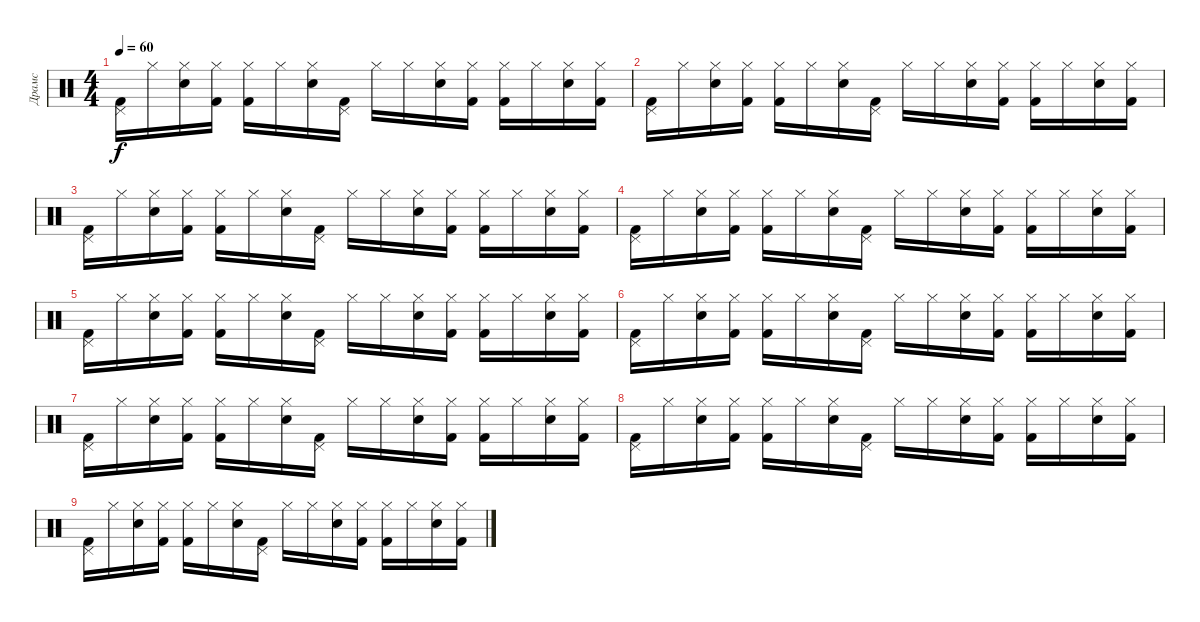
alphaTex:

\track ("Драмс" "Драмс") {instrument percussion}
\staff {score}
\articulation defaults
\ts (4 4)
\tempo 60
\clef neutral
\ks c
("Kick (hit) 2" "Pedal Hi-Hat (hit)").16{dy f} "Hi-Hat (closed)".16 ("Snare (hit) 2" "Hi-Hat (closed)").16 ("Kick (hit) 2" "Hi-Hat (closed)").16 ("Kick (hit) 2" "Hi-Hat (closed)").16 "Hi-Hat (closed)".16 ("Snare (hit) 2" "Hi-Hat (closed)").16 ("Kick (hit) 2" "Pedal Hi-Hat (hit)").16 "Hi-Hat (closed)".16 "Hi-Hat (closed)".16 ("Snare (hit) 2" "Hi-Hat (closed)").16 ("Kick (hit) 2" "Hi-Hat (closed)").16 ("Kick (hit) 2" "Hi-Hat (closed)").16 "Hi-Hat (closed)".16 ("Snare (hit) 2" "Hi-Hat (closed)").16 ("Kick (hit) 2" "Hi-Hat (closed)").16 |
("Kick (hit) 2" "Pedal Hi-Hat (hit)").16 "Hi-Hat (closed)".16 ("Snare (hit) 2" "Hi-Hat (closed)").16 ("Kick (hit) 2" "Hi-Hat (closed)").16 ("Kick (hit) 2" "Hi-Hat (closed)").16 "Hi-Hat (closed)".16 ("Snare (hit) 2" "Hi-Hat (closed)").16 ("Kick (hit) 2" "Pedal Hi-Hat (hit)").16 "Hi-Hat (closed)".16 "Hi-Hat (closed)".16 ("Snare (hit) 2" "Hi-Hat (closed)").16 ("Kick (hit) 2" "Hi-Hat (closed)").16 ("Kick (hit) 2" "Hi-Hat (closed)").16 "Hi-Hat (closed)".16 ("Snare (hit) 2" "Hi-Hat (closed)").16 ("Kick (hit) 2" "Hi-Hat (closed)").16 |
("Kick (hit) 2" "Pedal Hi-Hat (hit)").16 "Hi-Hat (closed)".16 ("Snare (hit) 2" "Hi-Hat (closed)").16 ("Kick (hit) 2" "Hi-Hat (closed)").16 ("Kick (hit) 2" "Hi-Hat (closed)").16 "Hi-Hat (closed)".16 ("Snare (hit) 2" "Hi-Hat (closed)").16 ("Kick (hit) 2" "Pedal Hi-Hat (hit)").16 "Hi-Hat (closed)".16 "Hi-Hat (closed)".16 ("Snare (hit) 2" "Hi-Hat (closed)").16 ("Kick (hit) 2" "Hi-Hat (closed)").16 ("Kick (hit) 2" "Hi-Hat (closed)").16 "Hi-Hat (closed)".16 ("Snare (hit) 2" "Hi-Hat (closed)").16 ("Kick (hit) 2" "Hi-Hat (closed)").16 |
("Kick (hit) 2" "Pedal Hi-Hat (hit)").16 "Hi-Hat (closed)".16 ("Snare (hit) 2" "Hi-Hat (closed)").16 ("Kick (hit) 2" "Hi-Hat (closed)").16 ("Kick (hit) 2" "Hi-Hat (closed)").16 "Hi-Hat (closed)".16 ("Snare (hit) 2" "Hi-Hat (closed)").16 ("Kick (hit) 2" "Pedal Hi-Hat (hit)").16 "Hi-Hat (closed)".16 "Hi-Hat (closed)".16 ("Snare (hit) 2" "Hi-Hat (closed)").16 ("Kick (hit) 2" "Hi-Hat (closed)").16 ("Kick (hit) 2" "Hi-Hat (closed)").16 "Hi-Hat (closed)".16 ("Snare (hit) 2" "Hi-Hat (closed)").16 ("Kick (hit) 2" "Hi-Hat (closed)").16 |
("Kick (hit) 2" "Pedal Hi-Hat (hit)").16 "Hi-Hat (closed)".16 ("Snare (hit) 2" "Hi-Hat (closed)").16 ("Kick (hit) 2" "Hi-Hat (closed)").16 ("Kick (hit) 2" "Hi-Hat (closed)").16 "Hi-Hat (closed)".16 ("Snare (hit) 2" "Hi-Hat (closed)").16 ("Kick (hit) 2" "Pedal Hi-Hat (hit)").16 "Hi-Hat (closed)".16 "Hi-Hat (closed)".16 ("Snare (hit) 2" "Hi-Hat (closed)").16 ("Kick (hit) 2" "Hi-Hat (closed)").16 ("Kick (hit) 2" "Hi-Hat (closed)").16 "Hi-Hat (closed)".16 ("Snare (hit) 2" "Hi-Hat (closed)").16 ("Kick (hit) 2" "Hi-Hat (closed)").16 |
("Kick (hit) 2" "Pedal Hi-Hat (hit)").16 "Hi-Hat (closed)".16 ("Snare (hit) 2" "Hi-Hat (closed)").16 ("Kick (hit) 2" "Hi-Hat (closed)").16 ("Kick (hit) 2" "Hi-Hat (closed)").16 "Hi-Hat (closed)".16 ("Snare (hit) 2" "Hi-Hat (closed)").16 ("Kick (hit) 2" "Pedal Hi-Hat (hit)").16 "Hi-Hat (closed)".16 "Hi-Hat (closed)".16 ("Snare (hit) 2" "Hi-Hat (closed)").16 ("Kick (hit) 2" "Hi-Hat (closed)").16 ("Kick (hit) 2" "Hi-Hat (closed)").16 "Hi-Hat (closed)".16 ("Snare (hit) 2" "Hi-Hat (closed)").16 ("Kick (hit) 2" "Hi-Hat (closed)").16 |
("Kick (hit) 2" "Pedal Hi-Hat (hit)").16 "Hi-Hat (closed)".16 ("Snare (hit) 2" "Hi-Hat (closed)").16 ("Kick (hit) 2" "Hi-Hat (closed)").16 ("Kick (hit) 2" "Hi-Hat (closed)").16 "Hi-Hat (closed)".16 ("Snare (hit) 2" "Hi-Hat (closed)").16 ("Kick (hit) 2" "Pedal Hi-Hat (hit)").16 "Hi-Hat (closed)".16 "Hi-Hat (closed)".16 ("Snare (hit) 2" "Hi-Hat (closed)").16 ("Kick (hit) 2" "Hi-Hat (closed)").16 ("Kick (hit) 2" "Hi-Hat (closed)").16 "Hi-Hat (closed)".16 ("Snare (hit) 2" "Hi-Hat (closed)").16 ("Kick (hit) 2" "Hi-Hat (closed)").16 |
("Kick (hit) 2" "Pedal Hi-Hat (hit)").16 "Hi-Hat (closed)".16 ("Snare (hit) 2" "Hi-Hat (closed)").16 ("Kick (hit) 2" "Hi-Hat (closed)").16 ("Kick (hit) 2" "Hi-Hat (closed)").16 "Hi-Hat (closed)".16 ("Snare (hit) 2" "Hi-Hat (closed)").16 ("Kick (hit) 2" "Pedal Hi-Hat (hit)").16 "Hi-Hat (closed)".16 "Hi-Hat (closed)".16 ("Snare (hit) 2" "Hi-Hat (closed)").16 ("Kick (hit) 2" "Hi-Hat (closed)").16 ("Kick (hit) 2" "Hi-Hat (closed)").16 "Hi-Hat (closed)".16 ("Snare (hit) 2" "Hi-Hat (closed)").16 ("Kick (hit) 2" "Hi-Hat (closed)").16 |
("Kick (hit) 2" "Pedal Hi-Hat (hit)").16 "Hi-Hat (closed)".16 ("Snare (hit) 2" "Hi-Hat (closed)").16 ("Kick (hit) 2" "Hi-Hat (closed)").16 ("Kick (hit) 2" "Hi-Hat (closed)").16 "Hi-Hat (closed)".16 ("Snare (hit) 2" "Hi-Hat (closed)").16 ("Kick (hit) 2" "Pedal Hi-Hat (hit)").16 "Hi-Hat (closed)".16 "Hi-Hat (closed)".16 ("Snare (hit) 2" "Hi-Hat (closed)").16 ("Kick (hit) 2" "Hi-Hat (closed)").16 ("Kick (hit) 2" "Hi-Hat (closed)").16 "Hi-Hat (closed)".16 ("Snare (hit) 2" "Hi-Hat (closed)").16 ("Kick (hit) 2" "Hi-Hat (closed)").16
